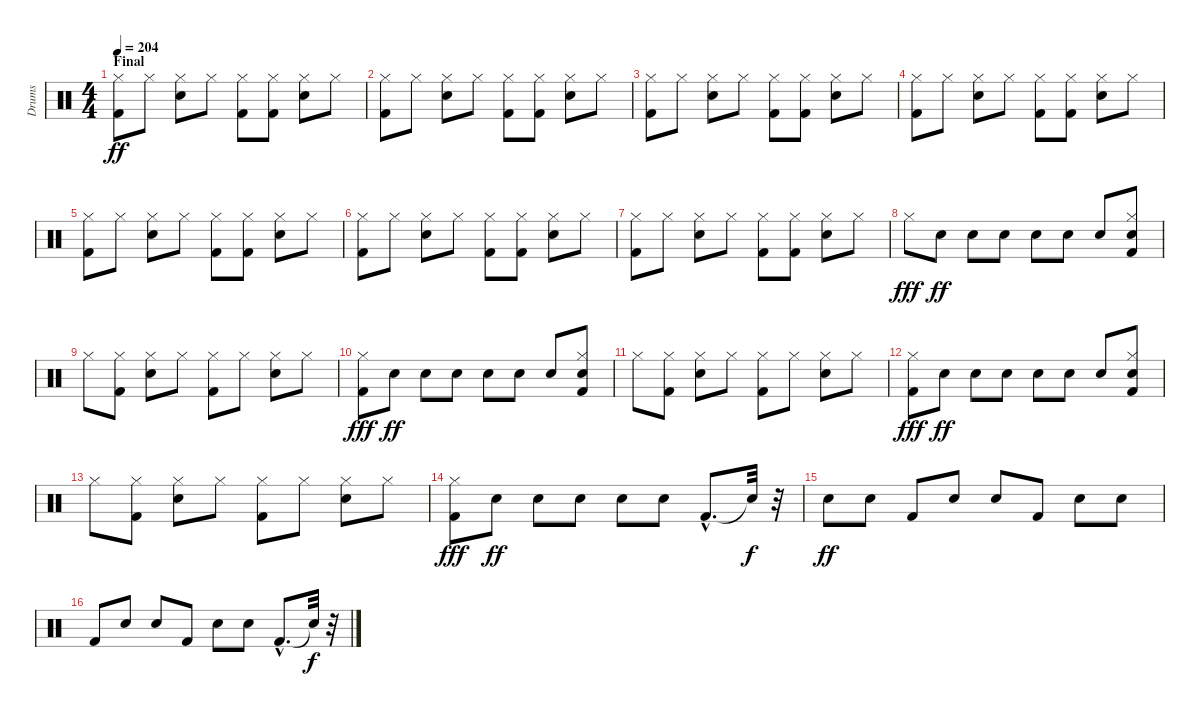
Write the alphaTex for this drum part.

\track ("Drums" "Drums") {instrument percussion}
\staff {score}
\articulation defaults
\ts (4 4)
\section ("" "Final")
\tempo 204
\clef neutral
\ks c
("Kick (hit) 2" "Hi-Hat (closed)").8{dy ff} "Hi-Hat (closed)".8 ("Snare (hit) 2" "Hi-Hat (closed)").8 "Hi-Hat (closed)".8 ("Kick (hit) 2" "Hi-Hat (closed)").8 ("Kick (hit) 2" "Hi-Hat (closed)").8 ("Snare (hit) 2" "Hi-Hat (closed)").8 "Hi-Hat (closed)".8 |
("Kick (hit) 2" "Hi-Hat (closed)").8 "Hi-Hat (closed)".8 ("Snare (hit) 2" "Hi-Hat (closed)").8 "Hi-Hat (closed)".8 ("Kick (hit) 2" "Hi-Hat (closed)").8 ("Kick (hit) 2" "Hi-Hat (closed)").8 ("Snare (hit) 2" "Hi-Hat (closed)").8 "Hi-Hat (closed)".8 |
("Kick (hit) 2" "Hi-Hat (closed)").8 "Hi-Hat (closed)".8 ("Snare (hit) 2" "Hi-Hat (closed)").8 "Hi-Hat (closed)".8 ("Kick (hit) 2" "Hi-Hat (closed)").8 ("Kick (hit) 2" "Hi-Hat (closed)").8 ("Snare (hit) 2" "Hi-Hat (closed)").8 "Hi-Hat (closed)".8 |
("Kick (hit) 2" "Hi-Hat (closed)").8 "Hi-Hat (closed)".8 ("Snare (hit) 2" "Hi-Hat (closed)").8 "Hi-Hat (closed)".8 ("Kick (hit) 2" "Hi-Hat (closed)").8 ("Kick (hit) 2" "Hi-Hat (closed)").8 ("Snare (hit) 2" "Hi-Hat (closed)").8 "Hi-Hat (closed)".8 |
("Kick (hit) 2" "Hi-Hat (closed)").8 "Hi-Hat (closed)".8 ("Snare (hit) 2" "Hi-Hat (closed)").8 "Hi-Hat (closed)".8 ("Kick (hit) 2" "Hi-Hat (closed)").8 ("Kick (hit) 2" "Hi-Hat (closed)").8 ("Snare (hit) 2" "Hi-Hat (closed)").8 "Hi-Hat (closed)".8 |
("Kick (hit) 2" "Hi-Hat (closed)").8 "Hi-Hat (closed)".8 ("Snare (hit) 2" "Hi-Hat (closed)").8 "Hi-Hat (closed)".8 ("Kick (hit) 2" "Hi-Hat (closed)").8 ("Kick (hit) 2" "Hi-Hat (closed)").8 ("Snare (hit) 2" "Hi-Hat (closed)").8 "Hi-Hat (closed)".8 |
("Kick (hit) 2" "Hi-Hat (closed)").8 "Hi-Hat (closed)".8 ("Snare (hit) 2" "Hi-Hat (closed)").8 "Hi-Hat (closed)".8 ("Kick (hit) 2" "Hi-Hat (closed)").8 ("Kick (hit) 2" "Hi-Hat (closed)").8 ("Snare (hit) 2" "Hi-Hat (closed)").8 "Hi-Hat (closed)".8 |
"Hi-Hat (closed)".8{dy fff} "Snare (hit) 2".8{dy ff} "Snare (hit) 2".8 "Snare (hit) 2".8 "Snare (hit) 2".8 "Snare (hit) 2".8 "Snare (hit) 2".8 ("Kick (hit) 2" "Snare (hit) 2" "Hi-Hat (closed)").8 |
"Hi-Hat (closed)".8 ("Kick (hit) 2" "Hi-Hat (closed)").8 ("Snare (hit) 2" "Hi-Hat (closed)").8 "Hi-Hat (closed)".8 ("Kick (hit) 2" "Hi-Hat (closed)").8 "Hi-Hat (closed)".8 ("Snare (hit) 2" "Hi-Hat (closed)").8 "Hi-Hat (closed)".8 |
("Kick (hit) 2" "Hi-Hat (closed)").8{dy fff} "Snare (hit) 2".8{dy ff} "Snare (hit) 2".8 "Snare (hit) 2".8 "Snare (hit) 2".8 "Snare (hit) 2".8 "Snare (hit) 2".8 ("Kick (hit) 2" "Snare (hit) 2" "Hi-Hat (closed)").8 |
"Hi-Hat (closed)".8 ("Kick (hit) 2" "Hi-Hat (closed)").8 ("Snare (hit) 2" "Hi-Hat (closed)").8 "Hi-Hat (closed)".8 ("Kick (hit) 2" "Hi-Hat (closed)").8 "Hi-Hat (closed)".8 ("Snare (hit) 2" "Hi-Hat (closed)").8 "Hi-Hat (closed)".8 |
("Kick (hit) 2" "Hi-Hat (closed)").8{dy fff} "Snare (hit) 2".8{dy ff} "Snare (hit) 2".8 "Snare (hit) 2".8 "Snare (hit) 2".8 "Snare (hit) 2".8 "Snare (hit) 2".8 ("Kick (hit) 2" "Snare (hit) 2" "Hi-Hat (closed)").8 |
"Hi-Hat (closed)".8 ("Kick (hit) 2" "Hi-Hat (closed)").8 ("Snare (hit) 2" "Hi-Hat (closed)").8 "Hi-Hat (closed)".8 ("Kick (hit) 2" "Hi-Hat (closed)").8 "Hi-Hat (closed)".8 ("Snare (hit) 2" "Hi-Hat (closed)").8 "Hi-Hat (closed)".8 |
("Kick (hit) 2" "Hi-Hat (closed)").8{dy fff} "Snare (hit) 2".8{dy ff} "Snare (hit) 2".8 "Snare (hit) 2".8 "Snare (hit) 2".8 "Snare (hit) 2".8 "Kick (hit) 2"{hac}.8{d} "Snare (hit)"{t}.32{dy f} r.32 |
"Snare (hit) 2".8{dy ff} "Snare (hit) 2".8 "Kick (hit) 2".8 "Snare (hit) 2".8 "Snare (hit) 2".8 "Kick (hit) 2".8 "Snare (hit) 2".8 "Snare (hit) 2".8 |
"Kick (hit) 2".8 "Snare (hit) 2".8 "Snare (hit) 2".8 "Kick (hit) 2".8 "Snare (hit) 2".8 "Snare (hit) 2".8 "Kick (hit) 2"{hac}.8{d} "Snare (hit)"{t}.32{dy f} r.32
